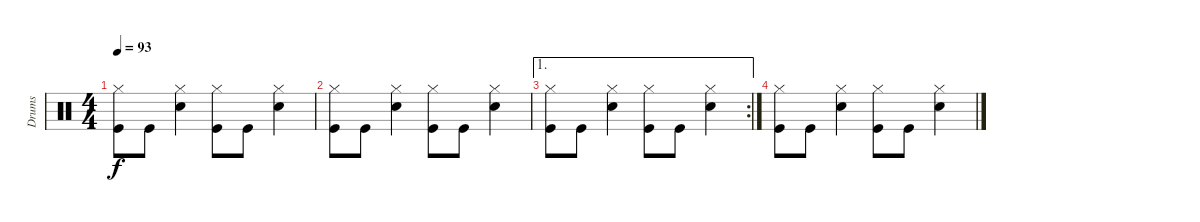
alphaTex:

\track ("Drums" "Drums") {instrument percussion}
\staff {score}
\articulation defaults
\ts (4 4)
\tempo 93
\clef neutral
\ks c
("Hi-Hat (closed)" "Kick (hit)").8{dy f} "Kick (hit)".8 ("Hi-Hat (closed)" "Snare (hit) 2").4 ("Hi-Hat (closed)" "Kick (hit)").8 "Kick (hit)".8 ("Hi-Hat (closed)" "Snare (hit) 2").4 |
("Hi-Hat (closed)" "Kick (hit)").8 "Kick (hit)".8 ("Hi-Hat (closed)" "Snare (hit) 2").4 ("Hi-Hat (closed)" "Kick (hit)").8 "Kick (hit)".8 ("Hi-Hat (closed)" "Snare (hit) 2").4 |
\ae 1
\rc 2
("Hi-Hat (closed)" "Kick (hit)").8 "Kick (hit)".8 ("Hi-Hat (closed)" "Snare (hit) 2").4 ("Hi-Hat (closed)" "Kick (hit)").8 "Kick (hit)".8 ("Hi-Hat (closed)" "Snare (hit) 2").4 |
("Hi-Hat (closed)" "Kick (hit)").8 "Kick (hit)".8 ("Hi-Hat (closed)" "Snare (hit) 2").4 ("Hi-Hat (closed)" "Kick (hit)").8 "Kick (hit)".8 ("Hi-Hat (closed)" "Snare (hit) 2").4
